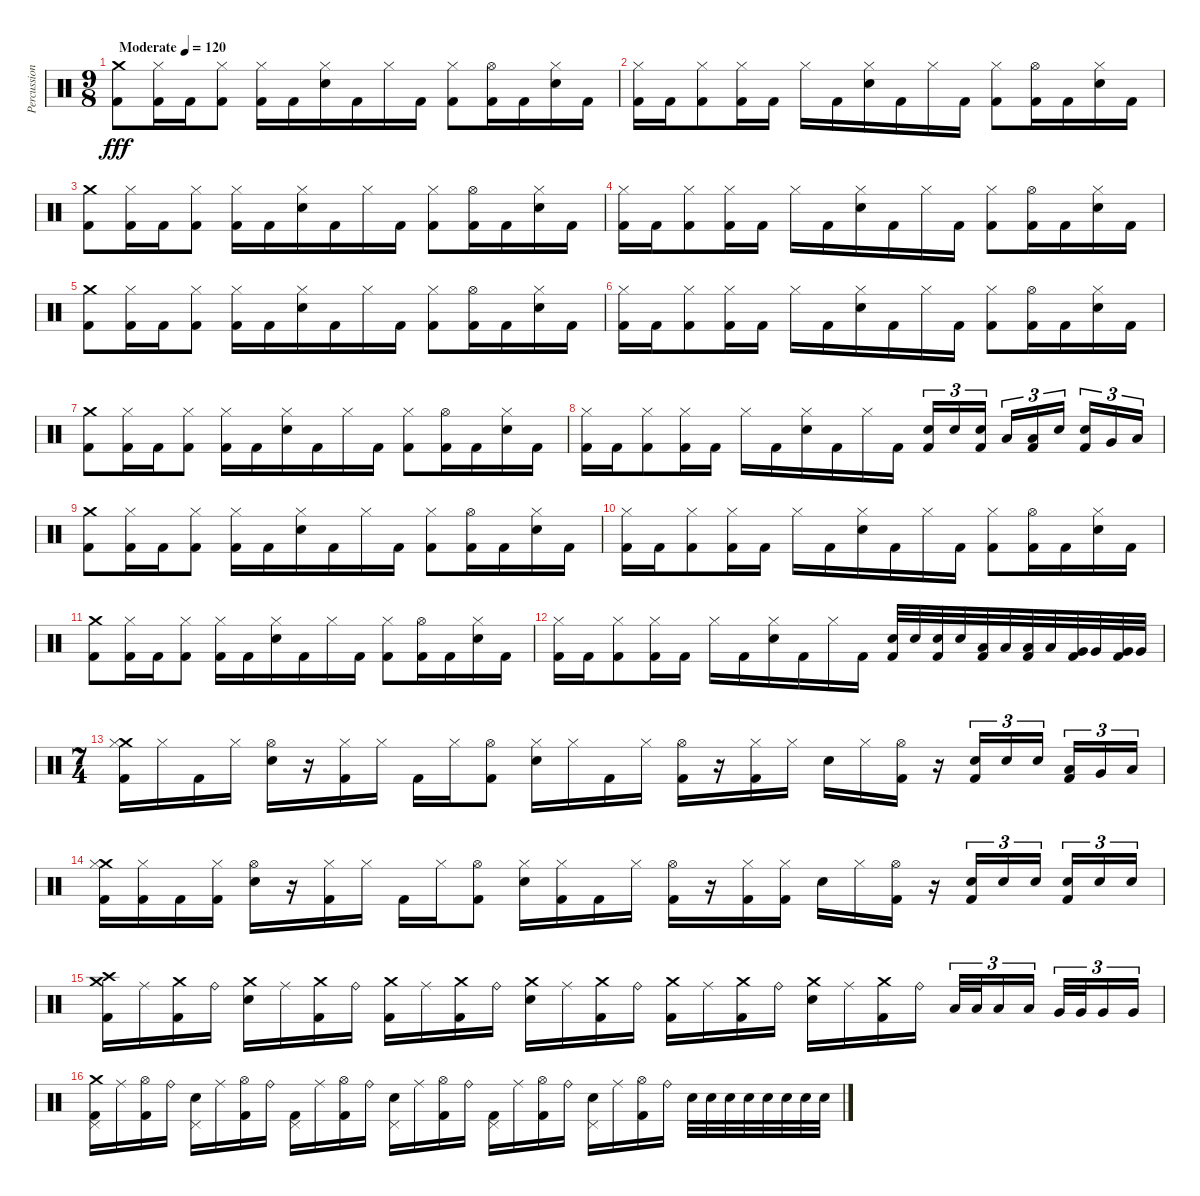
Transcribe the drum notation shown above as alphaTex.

\track ("Percussion" "Percussion") {instrument percussion}
\staff {score}
\articulation defaults
\ts (9 8)
\tempo (120 "Moderate")
\clef neutral
\ks c
("Crash medium (hit)" "Kick (hit) 2").8{dy fff} ("Hi-Hat (closed)" "Kick (hit) 2").16 "Kick (hit) 2".16 ("Hi-Hat (closed)" "Kick (hit) 2").8 ("Hi-Hat (closed)" "Kick (hit) 2").16 "Kick (hit) 2".16 ("Hi-Hat (closed)" "Electric Snare (hit)").16 "Kick (hit) 2".16 "Hi-Hat (closed)".16 "Kick (hit) 2".16 ("Hi-Hat (closed)" "Kick (hit) 2").8 ("Hi-Hat (open)" "Kick (hit) 2").16 "Kick (hit) 2".16 ("Hi-Hat (closed)" "Electric Snare (hit)").16 "Kick (hit) 2".16 |
("Hi-Hat (closed)" "Kick (hit) 2").16 "Kick (hit) 2".16 ("Hi-Hat (closed)" "Kick (hit) 2").8 ("Hi-Hat (closed)" "Kick (hit) 2").16 "Kick (hit) 2".16 "Hi-Hat (closed)".16 "Kick (hit) 2".16 ("Hi-Hat (closed)" "Electric Snare (hit)").16 "Kick (hit) 2".16 "Hi-Hat (closed)".16 "Kick (hit) 2".16 ("Hi-Hat (closed)" "Kick (hit) 2").8 ("Hi-Hat (open)" "Kick (hit) 2").16 "Kick (hit) 2".16 ("Hi-Hat (closed)" "Electric Snare (hit)").16 "Kick (hit) 2".16 |
("Crash medium (hit)" "Kick (hit) 2").8 ("Hi-Hat (closed)" "Kick (hit) 2").16 "Kick (hit) 2".16 ("Hi-Hat (closed)" "Kick (hit) 2").8 ("Hi-Hat (closed)" "Kick (hit) 2").16 "Kick (hit) 2".16 ("Hi-Hat (closed)" "Electric Snare (hit)").16 "Kick (hit) 2".16 "Hi-Hat (closed)".16 "Kick (hit) 2".16 ("Hi-Hat (closed)" "Kick (hit) 2").8 ("Hi-Hat (open)" "Kick (hit) 2").16 "Kick (hit) 2".16 ("Hi-Hat (closed)" "Electric Snare (hit)").16 "Kick (hit) 2".16 |
("Hi-Hat (closed)" "Kick (hit) 2").16 "Kick (hit) 2".16 ("Hi-Hat (closed)" "Kick (hit) 2").8 ("Hi-Hat (closed)" "Kick (hit) 2").16 "Kick (hit) 2".16 "Hi-Hat (closed)".16 "Kick (hit) 2".16 ("Hi-Hat (closed)" "Electric Snare (hit)").16 "Kick (hit) 2".16 "Hi-Hat (closed)".16 "Kick (hit) 2".16 ("Hi-Hat (closed)" "Kick (hit) 2").8 ("Hi-Hat (open)" "Kick (hit) 2").16 "Kick (hit) 2".16 ("Hi-Hat (closed)" "Electric Snare (hit)").16 "Kick (hit) 2".16 |
("Crash medium (hit)" "Kick (hit) 2").8 ("Hi-Hat (closed)" "Kick (hit) 2").16 "Kick (hit) 2".16 ("Hi-Hat (closed)" "Kick (hit) 2").8 ("Hi-Hat (closed)" "Kick (hit) 2").16 "Kick (hit) 2".16 ("Hi-Hat (closed)" "Electric Snare (hit)").16 "Kick (hit) 2".16 "Hi-Hat (closed)".16 "Kick (hit) 2".16 ("Hi-Hat (closed)" "Kick (hit) 2").8 ("Hi-Hat (open)" "Kick (hit) 2").16 "Kick (hit) 2".16 ("Hi-Hat (closed)" "Electric Snare (hit)").16 "Kick (hit) 2".16 |
("Hi-Hat (closed)" "Kick (hit) 2").16 "Kick (hit) 2".16 ("Hi-Hat (closed)" "Kick (hit) 2").8 ("Hi-Hat (closed)" "Kick (hit) 2").16 "Kick (hit) 2".16 "Hi-Hat (closed)".16 "Kick (hit) 2".16 ("Hi-Hat (closed)" "Electric Snare (hit)").16 "Kick (hit) 2".16 "Hi-Hat (closed)".16 "Kick (hit) 2".16 ("Hi-Hat (closed)" "Kick (hit) 2").8 ("Hi-Hat (open)" "Kick (hit) 2").16 "Kick (hit) 2".16 ("Hi-Hat (closed)" "Electric Snare (hit)").16 "Kick (hit) 2".16 |
("Crash medium (hit)" "Kick (hit) 2").8 ("Hi-Hat (closed)" "Kick (hit) 2").16 "Kick (hit) 2".16 ("Hi-Hat (closed)" "Kick (hit) 2").8 ("Hi-Hat (closed)" "Kick (hit) 2").16 "Kick (hit) 2".16 ("Hi-Hat (closed)" "Electric Snare (hit)").16 "Kick (hit) 2".16 "Hi-Hat (closed)".16 "Kick (hit) 2".16 ("Hi-Hat (closed)" "Kick (hit) 2").8 ("Hi-Hat (open)" "Kick (hit) 2").16 "Kick (hit) 2".16 ("Hi-Hat (closed)" "Electric Snare (hit)").16 "Kick (hit) 2".16 |
("Hi-Hat (closed)" "Kick (hit) 2").16 "Kick (hit) 2".16 ("Hi-Hat (closed)" "Kick (hit) 2").8 ("Hi-Hat (closed)" "Kick (hit) 2").16 "Kick (hit) 2".16 "Hi-Hat (closed)".16 "Kick (hit) 2".16 ("Hi-Hat (closed)" "Electric Snare (hit)").16 "Kick (hit) 2".16 "Hi-Hat (closed)".16 "Kick (hit) 2".16 ("Electric Snare (hit)" "Kick (hit) 2").16{tu (3 2)} "Electric Snare (hit)".16{tu (3 2)} ("Electric Snare (hit)" "Kick (hit) 2").16{tu (3 2) beam splitsecondary} "Low Tom (hit)".16{tu (3 2)} ("Low Tom (hit)" "Kick (hit) 2").16{tu (3 2)} "Electric Snare (hit)".16{tu (3 2) beam splitsecondary} ("Electric Snare (hit)" "Kick (hit) 2").16{tu (3 2)} "Very Low Tom (hit)".16{tu (3 2)} "Low Floor Tom (hit)".16{tu (3 2)} |
("Crash medium (hit)" "Kick (hit) 2").8 ("Hi-Hat (closed)" "Kick (hit) 2").16 "Kick (hit) 2".16 ("Hi-Hat (closed)" "Kick (hit) 2").8 ("Hi-Hat (closed)" "Kick (hit) 2").16 "Kick (hit) 2".16 ("Hi-Hat (closed)" "Electric Snare (hit)").16 "Kick (hit) 2".16 "Hi-Hat (closed)".16 "Kick (hit) 2".16 ("Hi-Hat (closed)" "Kick (hit) 2").8 ("Hi-Hat (open)" "Kick (hit) 2").16 "Kick (hit) 2".16 ("Hi-Hat (closed)" "Electric Snare (hit)").16 "Kick (hit) 2".16 |
("Hi-Hat (closed)" "Kick (hit) 2").16 "Kick (hit) 2".16 ("Hi-Hat (closed)" "Kick (hit) 2").8 ("Hi-Hat (closed)" "Kick (hit) 2").16 "Kick (hit) 2".16 "Hi-Hat (closed)".16 "Kick (hit) 2".16 ("Hi-Hat (closed)" "Electric Snare (hit)").16 "Kick (hit) 2".16 "Hi-Hat (closed)".16 "Kick (hit) 2".16 ("Hi-Hat (closed)" "Kick (hit) 2").8 ("Hi-Hat (open)" "Kick (hit) 2").16 "Kick (hit) 2".16 ("Hi-Hat (closed)" "Electric Snare (hit)").16 "Kick (hit) 2".16 |
("Crash medium (hit)" "Kick (hit) 2").8 ("Hi-Hat (closed)" "Kick (hit) 2").16 "Kick (hit) 2".16 ("Hi-Hat (closed)" "Kick (hit) 2").8 ("Hi-Hat (closed)" "Kick (hit) 2").16 "Kick (hit) 2".16 ("Hi-Hat (closed)" "Electric Snare (hit)").16 "Kick (hit) 2".16 "Hi-Hat (closed)".16 "Kick (hit) 2".16 ("Hi-Hat (closed)" "Kick (hit) 2").8 ("Hi-Hat (open)" "Kick (hit) 2").16 "Kick (hit) 2".16 ("Hi-Hat (closed)" "Electric Snare (hit)").16 "Kick (hit) 2".16 |
("Hi-Hat (closed)" "Kick (hit) 2").16 "Kick (hit) 2".16 ("Hi-Hat (closed)" "Kick (hit) 2").8 ("Hi-Hat (closed)" "Kick (hit) 2").16 "Kick (hit) 2".16 "Hi-Hat (closed)".16 "Kick (hit) 2".16 ("Hi-Hat (closed)" "Electric Snare (hit)").16 "Kick (hit) 2".16 "Hi-Hat (closed)".16 "Kick (hit) 2".16 ("Electric Snare (hit)" "Kick (hit) 2").32 "Electric Snare (hit)".32 ("Electric Snare (hit)" "Kick (hit) 2").32 "Electric Snare (hit)".32 ("Low Tom (hit)" "Kick (hit) 2").32 "Low Tom (hit)".32 ("Low Tom (hit)" "Kick (hit) 2").32 "Low Tom (hit)".32 ("Very Low Tom (hit)" "Kick (hit) 2").32 "Very Low Tom (hit)".32 ("Very Low Tom (hit)" "Kick (hit) 2").32 "Very Low Tom (hit)".32 |
\ts (7 4)
("Crash medium (hit)" "Hi-Hat (closed)" "Kick (hit) 2").16 "Hi-Hat (closed)".16 "Kick (hit) 2".16 "Hi-Hat (closed)".16 ("Hi-Hat (open)" "Electric Snare (hit)").16 r.16 ("Hi-Hat (closed)" "Kick (hit) 2").16 "Hi-Hat (closed)".16 "Kick (hit) 2".16 "Hi-Hat (closed)".16 ("Hi-Hat (open)" "Kick (hit) 2").8 ("Hi-Hat (closed)" "Electric Snare (hit)").16 "Hi-Hat (closed)".16 "Kick (hit) 2".16 "Hi-Hat (closed)".16 ("Hi-Hat (open)" "Kick (hit) 2").16 r.16 ("Hi-Hat (closed)" "Kick (hit) 2").16 "Hi-Hat (closed)".16 "Electric Snare (hit)".16 "Hi-Hat (closed)".16 ("Hi-Hat (open)" "Kick (hit) 2").16 r.16 ("Electric Snare (hit)" "Kick (hit) 2").16{tu (3 2)} "Electric Snare (hit)".16{tu (3 2)} "Electric Snare (hit)".16{tu (3 2) beam splitsecondary} ("Low Tom (hit)" "Kick (hit) 2").16{tu (3 2)} "Very Low Tom (hit)".16{tu (3 2)} "Low Floor Tom (hit)".16{tu (3 2)} |
("Crash medium (hit)" "Hi-Hat (closed)" "Kick (hit) 2").16 ("Hi-Hat (closed)" "Kick (hit) 2").16 "Kick (hit) 2".16 ("Hi-Hat (closed)" "Kick (hit) 2").16 ("Hi-Hat (open)" "Electric Snare (hit)").16 r.16 ("Hi-Hat (closed)" "Kick (hit) 2").16 "Hi-Hat (closed)".16 "Kick (hit) 2".16 "Hi-Hat (closed)".16 ("Hi-Hat (open)" "Kick (hit) 2").8 ("Hi-Hat (closed)" "Electric Snare (hit)").16 ("Hi-Hat (closed)" "Kick (hit) 2").16 "Kick (hit) 2".16 "Hi-Hat (closed)".16 ("Hi-Hat (open)" "Kick (hit) 2").16 r.16 ("Hi-Hat (closed)" "Kick (hit) 2").16 ("Hi-Hat (closed)" "Kick (hit) 2").16 "Electric Snare (hit)".16 "Hi-Hat (closed)".16 ("Hi-Hat (open)" "Kick (hit) 2").16 r.16 ("Electric Snare (hit)" "Kick (hit) 2").16{tu (3 2)} "Electric Snare (hit)".16{tu (3 2)} "Electric Snare (hit)".16{tu (3 2) beam splitsecondary} ("Electric Snare (hit)" "Kick (hit) 2").16{tu (3 2)} "Electric Snare (hit)".16{tu (3 2)} "Electric Snare (hit)".16{tu (3 2)} |
("Crash high (hit)" "Crash medium (hit)" "Kick (hit) 2").16 "Ride (middle)".16 ("Crash medium (hit)" "Kick (hit) 2").16 "Ride (bell)".16 ("Crash medium (hit)" "Electric Snare (hit)").16 "Ride (middle)".16 ("Crash medium (hit)" "Kick (hit) 2").16 "Ride (bell)".16 ("Crash medium (hit)" "Kick (hit) 2").16 "Ride (middle)".16 ("Crash medium (hit)" "Kick (hit) 2").16 "Ride (bell)".16 ("Crash medium (hit)" "Electric Snare (hit)").16 "Ride (middle)".16 ("Crash medium (hit)" "Kick (hit) 2").16 "Ride (bell)".16 ("Crash medium (hit)" "Kick (hit) 2").16 "Ride (middle)".16 ("Crash medium (hit)" "Kick (hit) 2").16 "Ride (bell)".16 ("Crash medium (hit)" "Electric Snare (hit)").16 "Ride (middle)".16 ("Crash medium (hit)" "Kick (hit) 2").16 "Ride (bell)".16 "Low Tom (hit)".32{tu (3 2)} "Low Tom (hit)".32{tu (3 2)} "Low Tom (hit)".16{tu (3 2)} "Low Tom (hit)".16{tu (3 2) beam splitsecondary} "Very Low Tom (hit)".32{tu (3 2)} "Very Low Tom (hit)".32{tu (3 2)} "Very Low Tom (hit)".16{tu (3 2)} "Very Low Tom (hit)".16{tu (3 2)} |
("Pedal Hi-Hat (hit)" "Crash medium (hit)" "Kick (hit) 2").16 "Ride (middle)".16 ("Hi-Hat (open)" "Kick (hit) 2").16 "Ride (bell)".16 ("Pedal Hi-Hat (hit)" "Electric Snare (hit)").16 "Ride (middle)".16 ("Hi-Hat (open)" "Kick (hit) 2").16 "Ride (bell)".16 ("Pedal Hi-Hat (hit)" "Kick (hit) 2").16 "Ride (middle)".16 ("Hi-Hat (open)" "Kick (hit) 2").16 "Ride (bell)".16 ("Pedal Hi-Hat (hit)" "Electric Snare (hit)").16 "Ride (middle)".16 ("Hi-Hat (open)" "Kick (hit) 2").16 "Ride (bell)".16 ("Pedal Hi-Hat (hit)" "Kick (hit) 2").16 "Ride (middle)".16 ("Hi-Hat (open)" "Kick (hit) 2").16 "Ride (bell)".16 ("Pedal Hi-Hat (hit)" "Electric Snare (hit)").16 "Ride (middle)".16 ("Hi-Hat (open)" "Kick (hit) 2").16 "Ride (bell)".16 "Electric Snare (hit)".32 "Electric Snare (hit)".32 "Electric Snare (hit)".32 "Electric Snare (hit)".32 "Electric Snare (hit)".32 "Electric Snare (hit)".32 "Electric Snare (hit)".32 "Electric Snare (hit)".32
